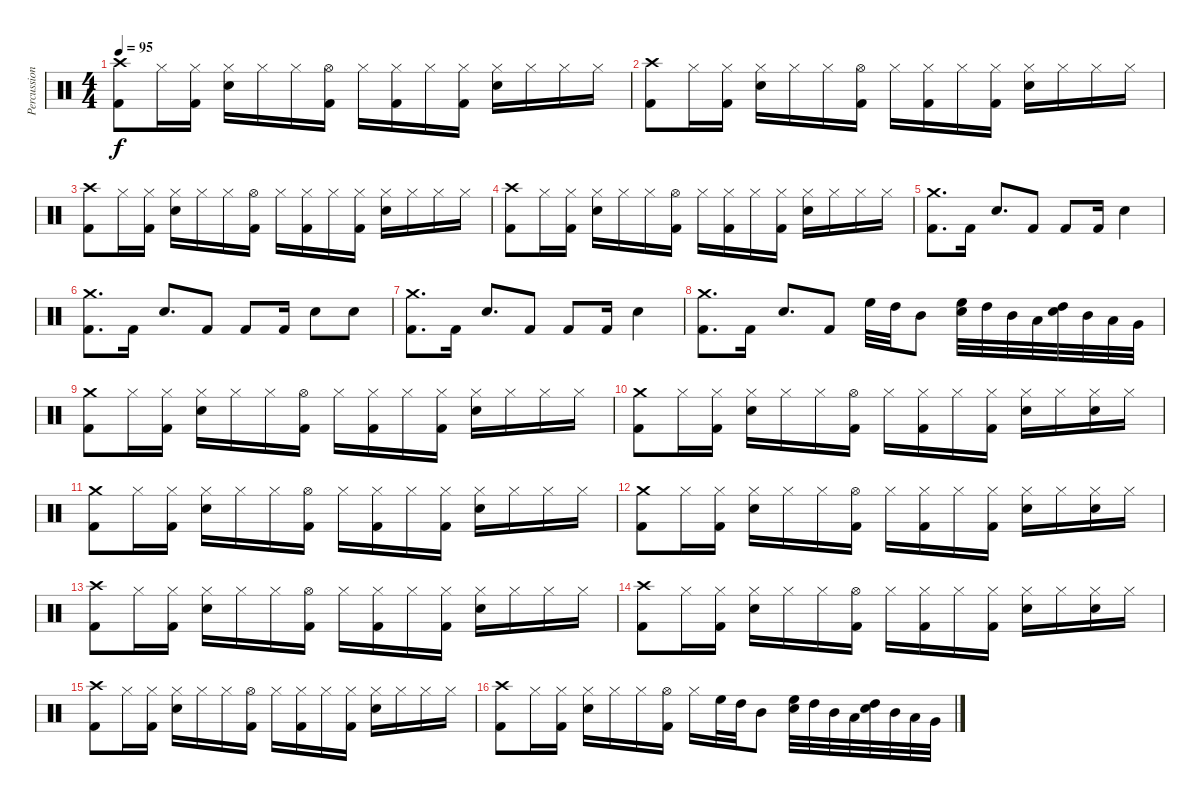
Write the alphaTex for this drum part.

\track ("Percussion" "Percussion") {instrument percussion}
\staff {score}
\articulation defaults
\ts (4 4)
\tempo 95
\clef neutral
\ks c
("Crash high (hit)" "Kick (hit) 2").8{dy f} "Hi-Hat (closed)".16 ("Hi-Hat (closed)" "Kick (hit) 2").16 ("Hi-Hat (closed)" "Electric Snare (hit)").16 "Hi-Hat (closed)".16 "Hi-Hat (closed)".16 ("Hi-Hat (open)" "Kick (hit) 2").16 "Hi-Hat (closed)".16 ("Hi-Hat (closed)" "Kick (hit) 2").16 "Hi-Hat (closed)".16 ("Hi-Hat (closed)" "Kick (hit) 2").16 ("Hi-Hat (closed)" "Electric Snare (hit)").16 "Hi-Hat (closed)".16 "Hi-Hat (closed)".16 "Hi-Hat (closed)".16 |
("Crash high (hit)" "Kick (hit) 2").8 "Hi-Hat (closed)".16 ("Hi-Hat (closed)" "Kick (hit) 2").16 ("Hi-Hat (closed)" "Electric Snare (hit)").16 "Hi-Hat (closed)".16 "Hi-Hat (closed)".16 ("Hi-Hat (open)" "Kick (hit) 2").16 "Hi-Hat (closed)".16 ("Hi-Hat (closed)" "Kick (hit) 2").16 "Hi-Hat (closed)".16 ("Hi-Hat (closed)" "Kick (hit) 2").16 ("Hi-Hat (closed)" "Electric Snare (hit)").16 "Hi-Hat (closed)".16 "Hi-Hat (closed)".16 "Hi-Hat (closed)".16 |
("Crash high (hit)" "Kick (hit) 2").8 "Hi-Hat (closed)".16 ("Hi-Hat (closed)" "Kick (hit) 2").16 ("Hi-Hat (closed)" "Electric Snare (hit)").16 "Hi-Hat (closed)".16 "Hi-Hat (closed)".16 ("Hi-Hat (open)" "Kick (hit) 2").16 "Hi-Hat (closed)".16 ("Hi-Hat (closed)" "Kick (hit) 2").16 "Hi-Hat (closed)".16 ("Hi-Hat (closed)" "Kick (hit) 2").16 ("Hi-Hat (closed)" "Electric Snare (hit)").16 "Hi-Hat (closed)".16 "Hi-Hat (closed)".16 "Hi-Hat (closed)".16 |
("Crash high (hit)" "Kick (hit) 2").8 "Hi-Hat (closed)".16 ("Hi-Hat (closed)" "Kick (hit) 2").16 ("Hi-Hat (closed)" "Electric Snare (hit)").16 "Hi-Hat (closed)".16 "Hi-Hat (closed)".16 ("Hi-Hat (open)" "Kick (hit) 2").16 "Hi-Hat (closed)".16 ("Hi-Hat (closed)" "Kick (hit) 2").16 "Hi-Hat (closed)".16 ("Hi-Hat (closed)" "Kick (hit) 2").16 ("Hi-Hat (closed)" "Electric Snare (hit)").16 "Hi-Hat (closed)".16 "Hi-Hat (closed)".16 "Hi-Hat (closed)".16 |
("Crash medium (hit)" "Kick (hit) 2").8{d} "Kick (hit) 2".16 "Electric Snare (hit)".8{d} "Kick (hit) 2".8 "Kick (hit) 2".8 "Kick (hit) 2".16 "Electric Snare (hit)".4 |
("Crash medium (hit)" "Kick (hit) 2").8{d} "Kick (hit) 2".16 "Electric Snare (hit)".8{d} "Kick (hit) 2".8 "Kick (hit) 2".8 "Kick (hit) 2".16 "Electric Snare (hit)".8 "Electric Snare (hit)".8 |
("Crash medium (hit)" "Kick (hit) 2").8{d} "Kick (hit) 2".16 "Electric Snare (hit)".8{d} "Kick (hit) 2".8 "Kick (hit) 2".8 "Kick (hit) 2".16 "Electric Snare (hit)".4 |
("Crash medium (hit)" "Kick (hit) 2").8{d} "Kick (hit) 2".16 "Electric Snare (hit)".8{d} "Kick (hit) 2".8 "High Floor Tom (hit)".32 "High Tom (hit)".32 "Mid Tom (hit)".8 ("Electric Snare (hit)" "High Floor Tom (hit)").32 "High Tom (hit)".32 "Mid Tom (hit)".32 "Low Tom (hit)".32 ("Electric Snare (hit)" "High Tom (hit)").32 "Mid Tom (hit)".32 "Low Tom (hit)".32 "Very Low Tom (hit)".32 |
("Crash medium (hit)" "Kick (hit) 2").8 "Hi-Hat (closed)".16 ("Hi-Hat (closed)" "Kick (hit) 2").16 ("Hi-Hat (closed)" "Electric Snare (hit)").16 "Hi-Hat (closed)".16 "Hi-Hat (closed)".16 ("Hi-Hat (open)" "Kick (hit) 2").16 "Hi-Hat (closed)".16 ("Hi-Hat (closed)" "Kick (hit) 2").16 "Hi-Hat (closed)".16 ("Hi-Hat (closed)" "Kick (hit) 2").16 ("Hi-Hat (closed)" "Electric Snare (hit)").16 "Hi-Hat (closed)".16 "Hi-Hat (closed)".16 "Hi-Hat (closed)".16 |
("Crash medium (hit)" "Kick (hit) 2").8 "Hi-Hat (closed)".16 ("Hi-Hat (closed)" "Kick (hit) 2").16 ("Hi-Hat (closed)" "Electric Snare (hit)").16 "Hi-Hat (closed)".16 "Hi-Hat (closed)".16 ("Hi-Hat (open)" "Kick (hit) 2").16 "Hi-Hat (closed)".16 ("Hi-Hat (closed)" "Kick (hit) 2").16 "Hi-Hat (closed)".16 ("Hi-Hat (closed)" "Kick (hit) 2").16 ("Hi-Hat (closed)" "Electric Snare (hit)").16 "Hi-Hat (closed)".16 ("Hi-Hat (closed)" "Electric Snare (hit)").16 "Hi-Hat (closed)".16 |
("Crash medium (hit)" "Kick (hit) 2").8 "Hi-Hat (closed)".16 ("Hi-Hat (closed)" "Kick (hit) 2").16 ("Hi-Hat (closed)" "Electric Snare (hit)").16 "Hi-Hat (closed)".16 "Hi-Hat (closed)".16 ("Hi-Hat (open)" "Kick (hit) 2").16 "Hi-Hat (closed)".16 ("Hi-Hat (closed)" "Kick (hit) 2").16 "Hi-Hat (closed)".16 ("Hi-Hat (closed)" "Kick (hit) 2").16 ("Hi-Hat (closed)" "Electric Snare (hit)").16 "Hi-Hat (closed)".16 "Hi-Hat (closed)".16 "Hi-Hat (closed)".16 |
("Crash medium (hit)" "Kick (hit) 2").8 "Hi-Hat (closed)".16 ("Hi-Hat (closed)" "Kick (hit) 2").16 ("Hi-Hat (closed)" "Electric Snare (hit)").16 "Hi-Hat (closed)".16 "Hi-Hat (closed)".16 ("Hi-Hat (open)" "Kick (hit) 2").16 "Hi-Hat (closed)".16 ("Hi-Hat (closed)" "Kick (hit) 2").16 "Hi-Hat (closed)".16 ("Hi-Hat (closed)" "Kick (hit) 2").16 ("Hi-Hat (closed)" "Electric Snare (hit)").16 "Hi-Hat (closed)".16 ("Hi-Hat (closed)" "Electric Snare (hit)").16 "Hi-Hat (closed)".16 |
("Crash high (hit)" "Kick (hit) 2").8 "Hi-Hat (closed)".16 ("Hi-Hat (closed)" "Kick (hit) 2").16 ("Hi-Hat (closed)" "Electric Snare (hit)").16 "Hi-Hat (closed)".16 "Hi-Hat (closed)".16 ("Hi-Hat (open)" "Kick (hit) 2").16 "Hi-Hat (closed)".16 ("Hi-Hat (closed)" "Kick (hit) 2").16 "Hi-Hat (closed)".16 ("Hi-Hat (closed)" "Kick (hit) 2").16 ("Hi-Hat (closed)" "Electric Snare (hit)").16 "Hi-Hat (closed)".16 "Hi-Hat (closed)".16 "Hi-Hat (closed)".16 |
("Crash high (hit)" "Kick (hit) 2").8 "Hi-Hat (closed)".16 ("Hi-Hat (closed)" "Kick (hit) 2").16 ("Hi-Hat (closed)" "Electric Snare (hit)").16 "Hi-Hat (closed)".16 "Hi-Hat (closed)".16 ("Hi-Hat (open)" "Kick (hit) 2").16 "Hi-Hat (closed)".16 ("Hi-Hat (closed)" "Kick (hit) 2").16 "Hi-Hat (closed)".16 ("Hi-Hat (closed)" "Kick (hit) 2").16 ("Hi-Hat (closed)" "Electric Snare (hit)").16 "Hi-Hat (closed)".16 ("Hi-Hat (closed)" "Electric Snare (hit)").16 "Hi-Hat (closed)".16 |
("Crash high (hit)" "Kick (hit) 2").8 "Hi-Hat (closed)".16 ("Hi-Hat (closed)" "Kick (hit) 2").16 ("Hi-Hat (closed)" "Electric Snare (hit)").16 "Hi-Hat (closed)".16 "Hi-Hat (closed)".16 ("Hi-Hat (open)" "Kick (hit) 2").16 "Hi-Hat (closed)".16 ("Hi-Hat (closed)" "Kick (hit) 2").16 "Hi-Hat (closed)".16 ("Hi-Hat (closed)" "Kick (hit) 2").16 ("Hi-Hat (closed)" "Electric Snare (hit)").16 "Hi-Hat (closed)".16 "Hi-Hat (closed)".16 "Hi-Hat (closed)".16 |
("Crash high (hit)" "Kick (hit) 2").8 "Hi-Hat (closed)".16 ("Hi-Hat (closed)" "Kick (hit) 2").16 ("Hi-Hat (closed)" "Electric Snare (hit)").16 "Hi-Hat (closed)".16 "Hi-Hat (closed)".16 ("Hi-Hat (open)" "Kick (hit) 2").16 "Hi-Hat (closed)".16 "High Floor Tom (hit)".32 "High Tom (hit)".32 "Mid Tom (hit)".8 ("Electric Snare (hit)" "High Floor Tom (hit)").32 "High Tom (hit)".32 "Mid Tom (hit)".32 "Low Tom (hit)".32 ("Electric Snare (hit)" "High Tom (hit)").32 "Mid Tom (hit)".32 "Low Tom (hit)".32 "Very Low Tom (hit)".32
